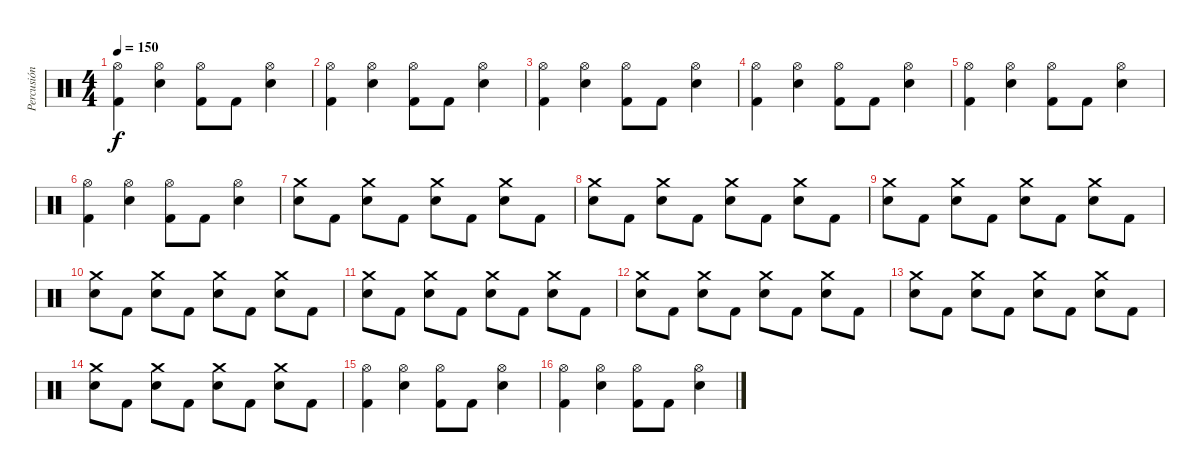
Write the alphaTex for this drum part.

\track ("Percusión" "Percusión") {instrument percussion}
\staff {score}
\articulation defaults
\ts (4 4)
\tempo 150
\clef neutral
\ks c
("Hi-Hat (open)" "Kick (hit) 2").4{dy f} ("Hi-Hat (open)" "Electric Snare (hit)").4 ("Hi-Hat (open)" "Kick (hit) 2").8 "Kick (hit) 2".8 ("Hi-Hat (open)" "Electric Snare (hit)").4 |
("Hi-Hat (open)" "Kick (hit) 2").4 ("Hi-Hat (open)" "Electric Snare (hit)").4 ("Hi-Hat (open)" "Kick (hit) 2").8 "Kick (hit) 2".8 ("Hi-Hat (open)" "Electric Snare (hit)").4 |
("Hi-Hat (open)" "Kick (hit) 2").4 ("Hi-Hat (open)" "Electric Snare (hit)").4 ("Hi-Hat (open)" "Kick (hit) 2").8 "Kick (hit) 2".8 ("Hi-Hat (open)" "Electric Snare (hit)").4 |
("Hi-Hat (open)" "Kick (hit) 2").4 ("Hi-Hat (open)" "Electric Snare (hit)").4 ("Hi-Hat (open)" "Kick (hit) 2").8 "Kick (hit) 2".8 ("Hi-Hat (open)" "Electric Snare (hit)").4 |
("Hi-Hat (open)" "Kick (hit) 2").4 ("Hi-Hat (open)" "Electric Snare (hit)").4 ("Hi-Hat (open)" "Kick (hit) 2").8 "Kick (hit) 2".8 ("Hi-Hat (open)" "Electric Snare (hit)").4 |
("Hi-Hat (open)" "Kick (hit) 2").4 ("Hi-Hat (open)" "Electric Snare (hit)").4 ("Hi-Hat (open)" "Kick (hit) 2").8 "Kick (hit) 2".8 ("Hi-Hat (open)" "Electric Snare (hit)").4 |
("Crash medium (hit)" "Electric Snare (hit)").8 "Kick (hit) 2".8 ("Crash medium (hit)" "Electric Snare (hit)").8 "Kick (hit) 2".8 ("Crash medium (hit)" "Electric Snare (hit)").8 "Kick (hit) 2".8 ("Crash medium (hit)" "Electric Snare (hit)").8 "Kick (hit) 2".8 |
("Crash medium (hit)" "Electric Snare (hit)").8 "Kick (hit) 2".8 ("Crash medium (hit)" "Electric Snare (hit)").8 "Kick (hit) 2".8 ("Crash medium (hit)" "Electric Snare (hit)").8 "Kick (hit) 2".8 ("Crash medium (hit)" "Electric Snare (hit)").8 "Kick (hit) 2".8 |
("Crash medium (hit)" "Electric Snare (hit)").8 "Kick (hit) 2".8 ("Crash medium (hit)" "Electric Snare (hit)").8 "Kick (hit) 2".8 ("Crash medium (hit)" "Electric Snare (hit)").8 "Kick (hit) 2".8 ("Crash medium (hit)" "Electric Snare (hit)").8 "Kick (hit) 2".8 |
("Crash medium (hit)" "Electric Snare (hit)").8 "Kick (hit) 2".8 ("Crash medium (hit)" "Electric Snare (hit)").8 "Kick (hit) 2".8 ("Crash medium (hit)" "Electric Snare (hit)").8 "Kick (hit) 2".8 ("Crash medium (hit)" "Electric Snare (hit)").8 "Kick (hit) 2".8 |
("Crash medium (hit)" "Electric Snare (hit)").8 "Kick (hit) 2".8 ("Crash medium (hit)" "Electric Snare (hit)").8 "Kick (hit) 2".8 ("Crash medium (hit)" "Electric Snare (hit)").8 "Kick (hit) 2".8 ("Crash medium (hit)" "Electric Snare (hit)").8 "Kick (hit) 2".8 |
("Crash medium (hit)" "Electric Snare (hit)").8 "Kick (hit) 2".8 ("Crash medium (hit)" "Electric Snare (hit)").8 "Kick (hit) 2".8 ("Crash medium (hit)" "Electric Snare (hit)").8 "Kick (hit) 2".8 ("Crash medium (hit)" "Electric Snare (hit)").8 "Kick (hit) 2".8 |
("Crash medium (hit)" "Electric Snare (hit)").8 "Kick (hit) 2".8 ("Crash medium (hit)" "Electric Snare (hit)").8 "Kick (hit) 2".8 ("Crash medium (hit)" "Electric Snare (hit)").8 "Kick (hit) 2".8 ("Crash medium (hit)" "Electric Snare (hit)").8 "Kick (hit) 2".8 |
("Crash medium (hit)" "Electric Snare (hit)").8 "Kick (hit) 2".8 ("Crash medium (hit)" "Electric Snare (hit)").8 "Kick (hit) 2".8 ("Crash medium (hit)" "Electric Snare (hit)").8 "Kick (hit) 2".8 ("Crash medium (hit)" "Electric Snare (hit)").8 "Kick (hit) 2".8 |
("Hi-Hat (open)" "Kick (hit) 2").4{volume 13} ("Hi-Hat (open)" "Electric Snare (hit)").4 ("Hi-Hat (open)" "Kick (hit) 2").8 "Kick (hit) 2".8 ("Hi-Hat (open)" "Electric Snare (hit)").4 |
("Hi-Hat (open)" "Kick (hit) 2").4 ("Hi-Hat (open)" "Electric Snare (hit)").4 ("Hi-Hat (open)" "Kick (hit) 2").8 "Kick (hit) 2".8 ("Hi-Hat (open)" "Electric Snare (hit)").4
